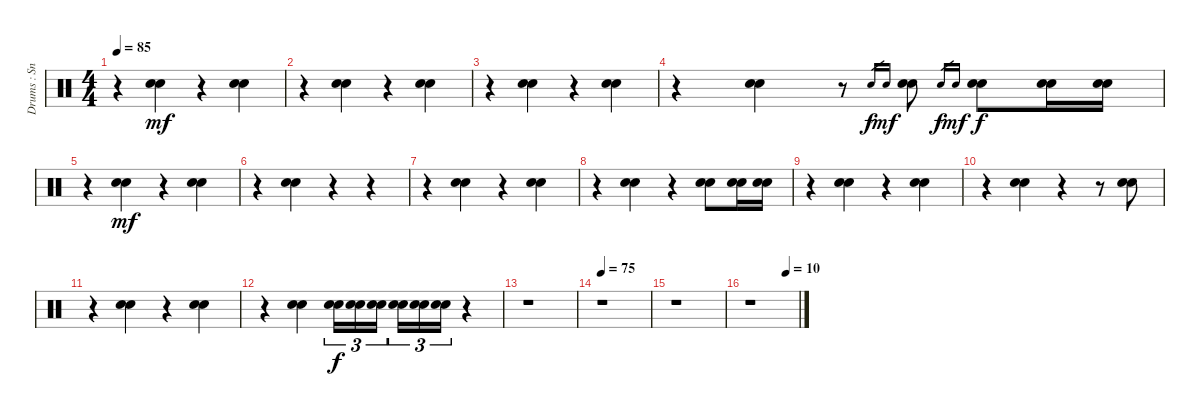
\track ("Drums : Snare" "Drums : Sn") {instrument percussion}
\staff {score}
\articulation defaults
\ts (4 4)
\tempo 85
\clef neutral
\ks c
r.4{dy mf} ("Electric Snare (hit)" "Snare (hit) 2").4 r.4 ("Electric Snare (hit)" "Snare (hit) 2").4 |
r.4 ("Electric Snare (hit)" "Snare (hit) 2").4 r.4 ("Electric Snare (hit)" "Snare (hit) 2").4 |
r.4 ("Electric Snare (hit)" "Snare (hit) 2").4 r.4 ("Electric Snare (hit)" "Snare (hit) 2").4 |
r.4 ("Electric Snare (hit)" "Snare (hit) 2").4 r.8 "Electric Snare (hit)".16{gr dy f} "Snare (hit) 2".16{gr dy mf} ("Electric Snare (hit)" "Snare (hit) 2").8 "Electric Snare (hit)".16{gr dy f} "Snare (hit) 2".16{gr dy mf} ("Electric Snare (hit)" "Snare (hit) 2").8{dy f} ("Electric Snare (hit)" "Snare (hit) 2").16 ("Electric Snare (hit)" "Snare (hit) 2").16 |
r.4 ("Electric Snare (hit)" "Snare (hit) 2").4{dy mf} r.4 ("Electric Snare (hit)" "Snare (hit) 2").4 |
r.4 ("Electric Snare (hit)" "Snare (hit) 2").4 r.4 r.4 |
r.4 ("Electric Snare (hit)" "Snare (hit) 2").4 r.4 ("Electric Snare (hit)" "Snare (hit) 2").4 |
r.4 ("Electric Snare (hit)" "Snare (hit) 2").4 r.4 ("Electric Snare (hit)" "Snare (hit) 2").8 ("Electric Snare (hit)" "Snare (hit) 2").16 ("Electric Snare (hit)" "Snare (hit) 2").16 |
r.4 ("Electric Snare (hit)" "Snare (hit) 2").4 r.4 ("Electric Snare (hit)" "Snare (hit) 2").4 |
r.4 ("Electric Snare (hit)" "Snare (hit) 2").4 r.4 r.8 ("Electric Snare (hit)" "Snare (hit) 2").8 |
r.4 ("Electric Snare (hit)" "Snare (hit) 2").4 r.4 ("Electric Snare (hit)" "Snare (hit) 2").4 |
r.4 ("Electric Snare (hit)" "Snare (hit) 2").4 ("Electric Snare (hit)" "Snare (hit) 2").16{tu (3 2) dy f} ("Electric Snare (hit)" "Snare (hit) 2").16{tu (3 2)} ("Electric Snare (hit)" "Snare (hit) 2").16{tu (3 2)} ("Electric Snare (hit)" "Snare (hit) 2").16{tu (3 2)} ("Electric Snare (hit)" "Snare (hit) 2").16{tu (3 2)} ("Electric Snare (hit)" "Snare (hit) 2").16{tu (3 2)} r.4 |
r.1 |
\tempo 75
r.1 |
r.1 |
\tempo (10 0.75)
r.1
